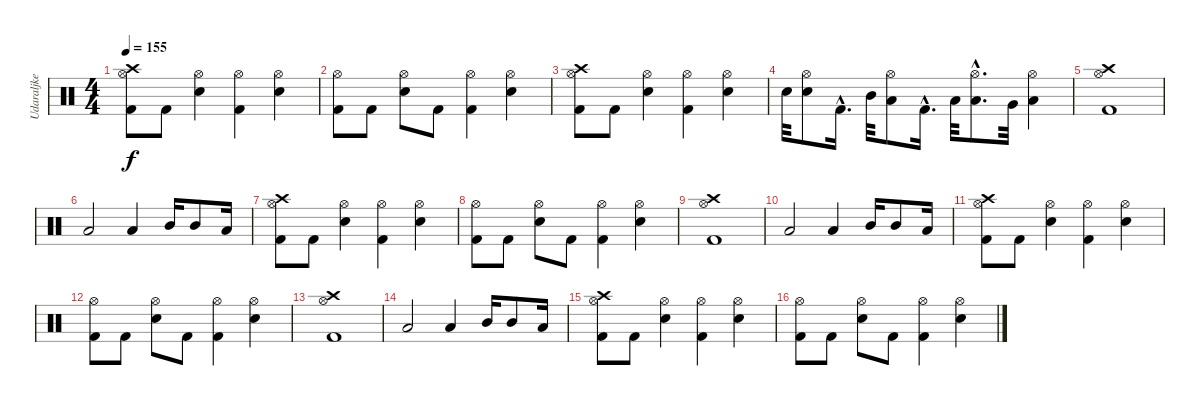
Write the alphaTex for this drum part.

\track ("Udaraljke" "Udaraljke") {instrument percussion}
\staff {score}
\articulation defaults
\ts (4 4)
\tempo 155
\clef neutral
\ks c
("Crash high (hit)" "Hi-Hat (open)" "Kick (hit) 2").8{dy f} "Kick (hit) 2".8 ("Hi-Hat (open)" "Electric Snare (hit)").4 ("Hi-Hat (open)" "Kick (hit) 2").4 ("Hi-Hat (open)" "Electric Snare (hit)").4 |
("Hi-Hat (open)" "Kick (hit) 2").8 "Kick (hit) 2".8 ("Hi-Hat (open)" "Electric Snare (hit)").8 "Kick (hit) 2".8 ("Hi-Hat (open)" "Kick (hit) 2").4 ("Hi-Hat (open)" "Electric Snare (hit)").4 |
("Crash high (hit)" "Hi-Hat (open)" "Kick (hit) 2").8 "Kick (hit) 2".8 ("Hi-Hat (open)" "Electric Snare (hit)").4 ("Hi-Hat (open)" "Kick (hit) 2").4 ("Hi-Hat (open)" "Electric Snare (hit)").4 |
"Snare (hit) 2".32 ("Snare (hit) 2" "Hi-Hat (open)").8 "Kick (hit) 2"{hac}.16{d} "Mid Tom (hit)".32 ("Low Tom (hit)" "Hi-Hat (open)").8 "Kick (hit) 2"{hac}.16{d} "Low Tom (hit)".32 ("Low Tom (hit)"{hac} "Hi-Hat (open)"{hac}).8{d} "Very Low Tom (hit)".32 ("Low Tom (hit)" "Hi-Hat (open)").4 |
("Crash high (hit)" "Hi-Hat (open)" "Kick (hit) 2").1 |
"Low Tom (hit)".2 "Low Tom (hit)".4 "Mid Tom (hit)".16 "Mid Tom (hit)".8 "Low Tom (hit)".16 |
("Crash high (hit)" "Hi-Hat (open)" "Kick (hit) 2").8 "Kick (hit) 2".8 ("Hi-Hat (open)" "Electric Snare (hit)").4 ("Hi-Hat (open)" "Kick (hit) 2").4 ("Hi-Hat (open)" "Electric Snare (hit)").4 |
("Hi-Hat (open)" "Kick (hit) 2").8 "Kick (hit) 2".8 ("Hi-Hat (open)" "Electric Snare (hit)").8 "Kick (hit) 2".8 ("Hi-Hat (open)" "Kick (hit) 2").4 ("Hi-Hat (open)" "Electric Snare (hit)").4 |
("Crash high (hit)" "Hi-Hat (open)" "Kick (hit) 2").1 |
"Low Tom (hit)".2 "Low Tom (hit)".4 "Mid Tom (hit)".16 "Mid Tom (hit)".8 "Low Tom (hit)".16 |
("Crash high (hit)" "Hi-Hat (open)" "Kick (hit) 2").8 "Kick (hit) 2".8 ("Hi-Hat (open)" "Electric Snare (hit)").4 ("Hi-Hat (open)" "Kick (hit) 2").4 ("Hi-Hat (open)" "Electric Snare (hit)").4 |
("Hi-Hat (open)" "Kick (hit) 2").8 "Kick (hit) 2".8 ("Hi-Hat (open)" "Electric Snare (hit)").8 "Kick (hit) 2".8 ("Hi-Hat (open)" "Kick (hit) 2").4 ("Hi-Hat (open)" "Electric Snare (hit)").4 |
("Crash high (hit)" "Hi-Hat (open)" "Kick (hit) 2").1 |
"Low Tom (hit)".2 "Low Tom (hit)".4 "Mid Tom (hit)".16 "Mid Tom (hit)".8 "Low Tom (hit)".16 |
("Crash high (hit)" "Hi-Hat (open)" "Kick (hit) 2").8 "Kick (hit) 2".8 ("Hi-Hat (open)" "Electric Snare (hit)").4 ("Hi-Hat (open)" "Kick (hit) 2").4 ("Hi-Hat (open)" "Electric Snare (hit)").4 |
("Hi-Hat (open)" "Kick (hit) 2").8 "Kick (hit) 2".8 ("Hi-Hat (open)" "Electric Snare (hit)").8 "Kick (hit) 2".8 ("Hi-Hat (open)" "Kick (hit) 2").4 ("Hi-Hat (open)" "Electric Snare (hit)").4
